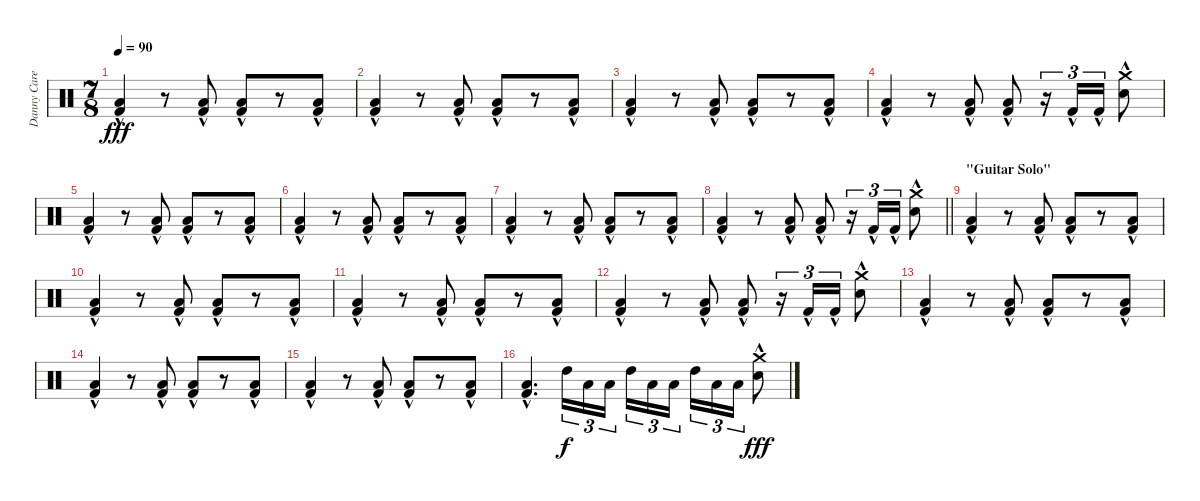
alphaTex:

\track ("Danny Carey" "Danny Care") {instrument percussion}
\staff {score}
\articulation defaults
\ts (7 8)
\section ("" "")
\tempo 90
\clef neutral
\ks c
("Low Floor Tom (hit)"{hac} "Kick (hit) 2"{hac}).4{dy fff} r.8 ("Low Floor Tom (hit)"{hac} "Kick (hit) 2"{hac}).8 ("Low Floor Tom (hit)"{hac} "Kick (hit) 2"{hac}).8 r.8 ("Low Floor Tom (hit)"{hac} "Kick (hit) 2"{hac}).8 |
("Low Floor Tom (hit)"{hac} "Kick (hit) 2"{hac}).4 r.8 ("Low Floor Tom (hit)"{hac} "Kick (hit) 2"{hac}).8 ("Low Floor Tom (hit)"{hac} "Kick (hit) 2"{hac}).8 r.8 ("Low Floor Tom (hit)"{hac} "Kick (hit) 2"{hac}).8 |
("Low Floor Tom (hit)"{hac} "Kick (hit) 2"{hac}).4 r.8 ("Low Floor Tom (hit)"{hac} "Kick (hit) 2"{hac}).8 ("Low Floor Tom (hit)"{hac} "Kick (hit) 2"{hac}).8 r.8 ("Low Floor Tom (hit)"{hac} "Kick (hit) 2"{hac}).8 |
("Low Floor Tom (hit)"{hac} "Kick (hit) 2"{hac}).4 r.8 ("Low Floor Tom (hit)"{hac} "Kick (hit) 2"{hac}).8 ("Low Floor Tom (hit)"{hac} "Kick (hit) 2"{hac}).8 r.16{tu (3 2)} "Kick (hit) 2"{hac}.16{tu (3 2)} "Kick (hit) 2"{hac}.16{tu (3 2)} ("Crash medium (hit)" "Electric Snare (hit)"{hac}).8 |
("Low Floor Tom (hit)"{hac} "Kick (hit) 2"{hac}).4 r.8 ("Low Floor Tom (hit)"{hac} "Kick (hit) 2"{hac}).8 ("Low Floor Tom (hit)"{hac} "Kick (hit) 2"{hac}).8 r.8 ("Low Floor Tom (hit)"{hac} "Kick (hit) 2"{hac}).8 |
("Low Floor Tom (hit)"{hac} "Kick (hit) 2"{hac}).4 r.8 ("Low Floor Tom (hit)"{hac} "Kick (hit) 2"{hac}).8 ("Low Floor Tom (hit)"{hac} "Kick (hit) 2"{hac}).8 r.8 ("Low Floor Tom (hit)"{hac} "Kick (hit) 2"{hac}).8 |
("Low Floor Tom (hit)"{hac} "Kick (hit) 2"{hac}).4 r.8 ("Low Floor Tom (hit)"{hac} "Kick (hit) 2"{hac}).8 ("Low Floor Tom (hit)"{hac} "Kick (hit) 2"{hac}).8 r.8 ("Low Floor Tom (hit)"{hac} "Kick (hit) 2"{hac}).8 |
\barLineRight lightlight
("Low Floor Tom (hit)"{hac} "Kick (hit) 2"{hac}).4 r.8 ("Low Floor Tom (hit)"{hac} "Kick (hit) 2"{hac}).8 ("Low Floor Tom (hit)"{hac} "Kick (hit) 2"{hac}).8 r.16{tu (3 2)} "Kick (hit) 2"{hac}.16{tu (3 2)} "Kick (hit) 2"{hac}.16{tu (3 2)} ("Crash medium (hit)" "Electric Snare (hit)"{hac}).8 |
\section ("" "\"Guitar Solo\"")
("Low Floor Tom (hit)"{hac} "Kick (hit) 2"{hac}).4 r.8 ("Low Floor Tom (hit)"{hac} "Kick (hit) 2"{hac}).8 ("Low Floor Tom (hit)"{hac} "Kick (hit) 2"{hac}).8 r.8 ("Low Floor Tom (hit)"{hac} "Kick (hit) 2"{hac}).8 |
("Low Floor Tom (hit)"{hac} "Kick (hit) 2"{hac}).4 r.8 ("Low Floor Tom (hit)"{hac} "Kick (hit) 2"{hac}).8 ("Low Floor Tom (hit)"{hac} "Kick (hit) 2"{hac}).8 r.8 ("Low Floor Tom (hit)"{hac} "Kick (hit) 2"{hac}).8 |
("Low Floor Tom (hit)"{hac} "Kick (hit) 2"{hac}).4 r.8 ("Low Floor Tom (hit)"{hac} "Kick (hit) 2"{hac}).8 ("Low Floor Tom (hit)"{hac} "Kick (hit) 2"{hac}).8 r.8 ("Low Floor Tom (hit)"{hac} "Kick (hit) 2"{hac}).8 |
("Low Floor Tom (hit)"{hac} "Kick (hit) 2"{hac}).4 r.8 ("Low Floor Tom (hit)"{hac} "Kick (hit) 2"{hac}).8 ("Low Floor Tom (hit)"{hac} "Kick (hit) 2"{hac}).8 r.16{tu (3 2)} "Kick (hit) 2"{hac}.16{tu (3 2)} "Kick (hit) 2"{hac}.16{tu (3 2)} ("Crash medium (hit)" "Electric Snare (hit)"{hac}).8 |
("Low Floor Tom (hit)"{hac} "Kick (hit) 2"{hac}).4 r.8 ("Low Floor Tom (hit)"{hac} "Kick (hit) 2"{hac}).8 ("Low Floor Tom (hit)"{hac} "Kick (hit) 2"{hac}).8 r.8 ("Low Floor Tom (hit)"{hac} "Kick (hit) 2"{hac}).8 |
("Low Floor Tom (hit)"{hac} "Kick (hit) 2"{hac}).4 r.8 ("Low Floor Tom (hit)"{hac} "Kick (hit) 2"{hac}).8 ("Low Floor Tom (hit)"{hac} "Kick (hit) 2"{hac}).8 r.8 ("Low Floor Tom (hit)"{hac} "Kick (hit) 2"{hac}).8 |
("Low Floor Tom (hit)"{hac} "Kick (hit) 2"{hac}).4 r.8 ("Low Floor Tom (hit)"{hac} "Kick (hit) 2"{hac}).8 ("Low Floor Tom (hit)"{hac} "Kick (hit) 2"{hac}).8 r.8 ("Low Floor Tom (hit)"{hac} "Kick (hit) 2"{hac}).8 |
("Low Floor Tom (hit)"{hac} "Kick (hit) 2"{hac}).4{d} "High Tom (hit)".16{tu (3 2) dy f} "Low Tom (hit)".16{tu (3 2)} "Low Tom (hit)".16{tu (3 2)} "High Tom (hit)".16{tu (3 2)} "Low Tom (hit)".16{tu (3 2)} "Low Tom (hit)".16{tu (3 2)} "High Tom (hit)".16{tu (3 2)} "Low Tom (hit)".16{tu (3 2)} "Low Tom (hit)".16{tu (3 2)} ("Crash medium (hit)" "Electric Snare (hit)"{hac}).8{dy fff}
